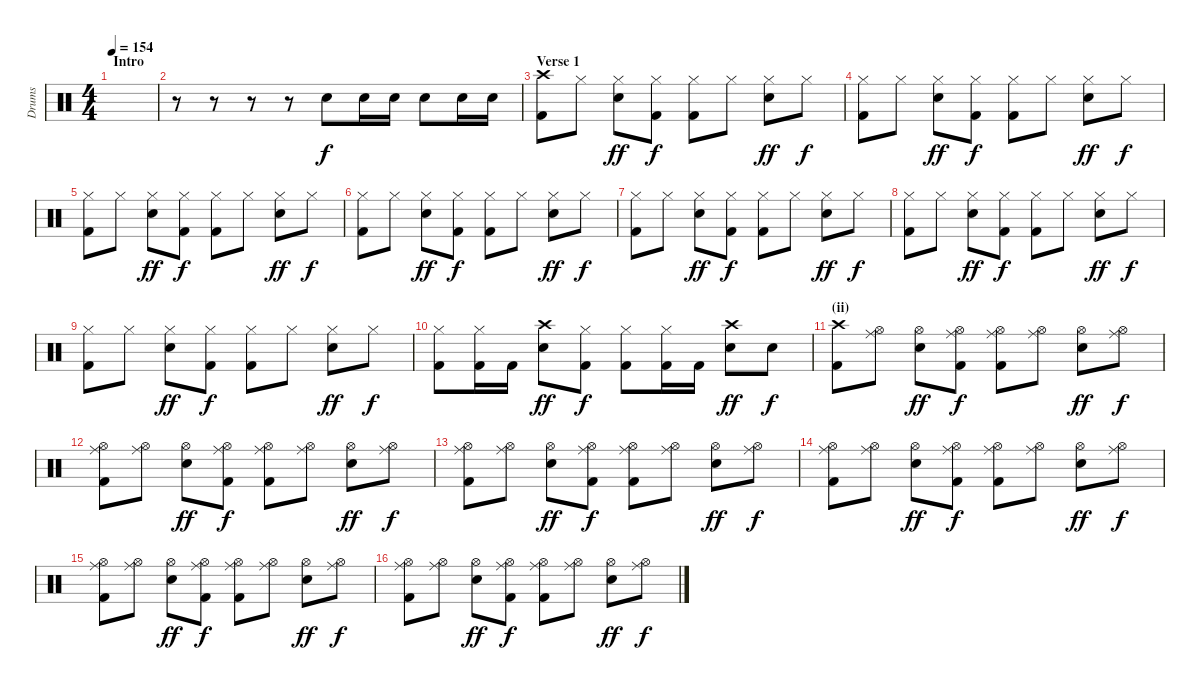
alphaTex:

\track ("Drums" "Drums") {instrument percussion}
\staff {score}
\articulation defaults
\ts (4 4)
\section ("" "Intro")
\tempo 154
\clef neutral
\ks c
|
r.8 r.8 r.8 r.8 "Electric Snare (hit)".8 "Electric Snare (hit)".16 "Electric Snare (hit)".16 "Electric Snare (hit)".8 "Electric Snare (hit)".16 "Electric Snare (hit)".16 |
\section ("" "Verse 1")
("Crash high (hit)" "Kick (hit) 2").8 "Hi-Hat (closed)".8 ("Hi-Hat (closed)" "Electric Snare (hit)").8{dy ff} ("Hi-Hat (closed)" "Kick (hit) 2").8{dy f} ("Hi-Hat (closed)" "Kick (hit) 2").8 "Hi-Hat (closed)".8 ("Hi-Hat (closed)" "Electric Snare (hit)").8{dy ff} "Hi-Hat (closed)".8{dy f} |
("Hi-Hat (closed)" "Kick (hit) 2").8 "Hi-Hat (closed)".8 ("Hi-Hat (closed)" "Electric Snare (hit)").8{dy ff} ("Hi-Hat (closed)" "Kick (hit) 2").8{dy f} ("Hi-Hat (closed)" "Kick (hit) 2").8 "Hi-Hat (closed)".8 ("Hi-Hat (closed)" "Electric Snare (hit)").8{dy ff} "Hi-Hat (closed)".8{dy f} |
("Hi-Hat (closed)" "Kick (hit) 2").8 "Hi-Hat (closed)".8 ("Hi-Hat (closed)" "Electric Snare (hit)").8{dy ff} ("Hi-Hat (closed)" "Kick (hit) 2").8{dy f} ("Hi-Hat (closed)" "Kick (hit) 2").8 "Hi-Hat (closed)".8 ("Hi-Hat (closed)" "Electric Snare (hit)").8{dy ff} "Hi-Hat (closed)".8{dy f} |
("Hi-Hat (closed)" "Kick (hit) 2").8 "Hi-Hat (closed)".8 ("Hi-Hat (closed)" "Electric Snare (hit)").8{dy ff} ("Hi-Hat (closed)" "Kick (hit) 2").8{dy f} ("Hi-Hat (closed)" "Kick (hit) 2").8 "Hi-Hat (closed)".8 ("Hi-Hat (closed)" "Electric Snare (hit)").8{dy ff} "Hi-Hat (closed)".8{dy f} |
("Hi-Hat (closed)" "Kick (hit) 2").8 "Hi-Hat (closed)".8 ("Hi-Hat (closed)" "Electric Snare (hit)").8{dy ff} ("Hi-Hat (closed)" "Kick (hit) 2").8{dy f} ("Hi-Hat (closed)" "Kick (hit) 2").8 "Hi-Hat (closed)".8 ("Hi-Hat (closed)" "Electric Snare (hit)").8{dy ff} "Hi-Hat (closed)".8{dy f} |
("Hi-Hat (closed)" "Kick (hit) 2").8 "Hi-Hat (closed)".8 ("Hi-Hat (closed)" "Electric Snare (hit)").8{dy ff} ("Hi-Hat (closed)" "Kick (hit) 2").8{dy f} ("Hi-Hat (closed)" "Kick (hit) 2").8 "Hi-Hat (closed)".8 ("Hi-Hat (closed)" "Electric Snare (hit)").8{dy ff} "Hi-Hat (closed)".8{dy f} |
("Hi-Hat (closed)" "Kick (hit) 2").8 "Hi-Hat (closed)".8 ("Hi-Hat (closed)" "Electric Snare (hit)").8{dy ff} ("Hi-Hat (closed)" "Kick (hit) 2").8{dy f} ("Hi-Hat (closed)" "Kick (hit) 2").8 "Hi-Hat (closed)".8 ("Hi-Hat (closed)" "Electric Snare (hit)").8{dy ff} "Hi-Hat (closed)".8{dy f} |
("Hi-Hat (closed)" "Kick (hit) 2").8 ("Hi-Hat (closed)" "Kick (hit) 2").16 "Kick (hit) 2".16 ("Crash high (hit)" "Electric Snare (hit)").8{dy ff} ("Hi-Hat (closed)" "Kick (hit) 2").8{dy f} ("Hi-Hat (closed)" "Kick (hit) 2").8 ("Hi-Hat (closed)" "Kick (hit) 2").16 "Kick (hit) 2".16 ("Crash high (hit)" "Electric Snare (hit)").8{dy ff} "Electric Snare (hit)".8{dy f} |
\section ("" "(ii)")
("Crash high (hit)" "Kick (hit) 2").8 ("Hi-Hat (open)" "Ride (middle)").8 ("Hi-Hat (open)" "Electric Snare (hit)").8{dy ff} ("Hi-Hat (open)" "Ride (middle)" "Kick (hit) 2").8{dy f} ("Hi-Hat (open)" "Ride (middle)" "Kick (hit) 2").8 ("Hi-Hat (open)" "Ride (middle)").8 ("Hi-Hat (open)" "Electric Snare (hit)").8{dy ff} ("Hi-Hat (open)" "Ride (middle)").8{dy f} |
("Hi-Hat (open)" "Ride (middle)" "Kick (hit) 2").8 ("Hi-Hat (open)" "Ride (middle)").8 ("Hi-Hat (open)" "Electric Snare (hit)").8{dy ff} ("Hi-Hat (open)" "Ride (middle)" "Kick (hit) 2").8{dy f} ("Hi-Hat (open)" "Ride (middle)" "Kick (hit) 2").8 ("Hi-Hat (open)" "Ride (middle)").8 ("Hi-Hat (open)" "Electric Snare (hit)").8{dy ff} ("Hi-Hat (open)" "Ride (middle)").8{dy f} |
("Hi-Hat (open)" "Ride (middle)" "Kick (hit) 2").8 ("Hi-Hat (open)" "Ride (middle)").8 ("Hi-Hat (open)" "Electric Snare (hit)").8{dy ff} ("Hi-Hat (open)" "Ride (middle)" "Kick (hit) 2").8{dy f} ("Hi-Hat (open)" "Ride (middle)" "Kick (hit) 2").8 ("Hi-Hat (open)" "Ride (middle)").8 ("Hi-Hat (open)" "Electric Snare (hit)").8{dy ff} ("Hi-Hat (open)" "Ride (middle)").8{dy f} |
("Hi-Hat (open)" "Ride (middle)" "Kick (hit) 2").8 ("Hi-Hat (open)" "Ride (middle)").8 ("Hi-Hat (open)" "Electric Snare (hit)").8{dy ff} ("Hi-Hat (open)" "Ride (middle)" "Kick (hit) 2").8{dy f} ("Hi-Hat (open)" "Ride (middle)" "Kick (hit) 2").8 ("Hi-Hat (open)" "Ride (middle)").8 ("Hi-Hat (open)" "Electric Snare (hit)").8{dy ff} ("Hi-Hat (open)" "Ride (middle)").8{dy f} |
("Hi-Hat (open)" "Ride (middle)" "Kick (hit) 2").8 ("Hi-Hat (open)" "Ride (middle)").8 ("Hi-Hat (open)" "Electric Snare (hit)").8{dy ff} ("Hi-Hat (open)" "Ride (middle)" "Kick (hit) 2").8{dy f} ("Hi-Hat (open)" "Ride (middle)" "Kick (hit) 2").8 ("Hi-Hat (open)" "Ride (middle)").8 ("Hi-Hat (open)" "Electric Snare (hit)").8{dy ff} ("Hi-Hat (open)" "Ride (middle)").8{dy f} |
("Hi-Hat (open)" "Ride (middle)" "Kick (hit) 2").8 ("Hi-Hat (open)" "Ride (middle)").8 ("Hi-Hat (open)" "Electric Snare (hit)").8{dy ff} ("Hi-Hat (open)" "Ride (middle)" "Kick (hit) 2").8{dy f} ("Hi-Hat (open)" "Ride (middle)" "Kick (hit) 2").8 ("Hi-Hat (open)" "Ride (middle)").8 ("Hi-Hat (open)" "Electric Snare (hit)").8{dy ff} ("Hi-Hat (open)" "Ride (middle)").8{dy f}
